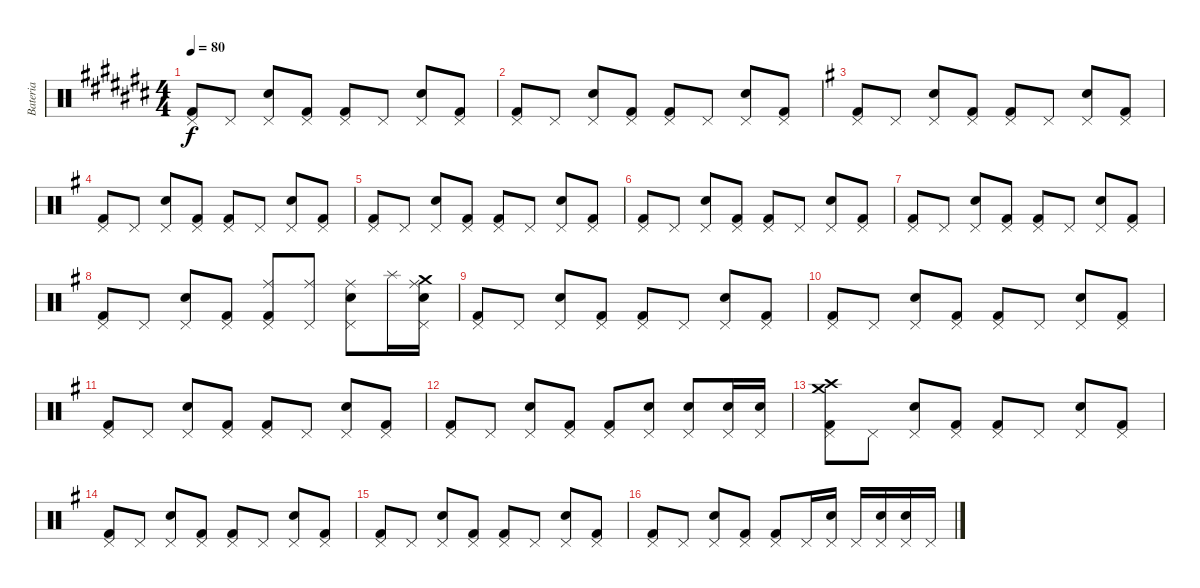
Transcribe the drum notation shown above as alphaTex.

\track ("Bateria" "Bateria") {instrument percussion}
\staff {score}
\articulation defaults
\ts (4 4)
\tempo 80
\clef neutral
\ks c#
("Pedal Hi-Hat (hit)" "Kick (hit) 2").8{dy f} "Pedal Hi-Hat (hit)".8 ("Pedal Hi-Hat (hit)" "Snare (hit) 2").8 ("Pedal Hi-Hat (hit)" "Kick (hit) 2").8 ("Pedal Hi-Hat (hit)" "Kick (hit) 2").8 "Pedal Hi-Hat (hit)".8 ("Pedal Hi-Hat (hit)" "Snare (hit) 2").8 ("Pedal Hi-Hat (hit)" "Kick (hit) 2").8 |
("Pedal Hi-Hat (hit)" "Kick (hit) 2").8 "Pedal Hi-Hat (hit)".8 ("Pedal Hi-Hat (hit)" "Snare (hit) 2").8 ("Pedal Hi-Hat (hit)" "Kick (hit) 2").8 ("Pedal Hi-Hat (hit)" "Kick (hit) 2").8 "Pedal Hi-Hat (hit)".8 ("Pedal Hi-Hat (hit)" "Snare (hit) 2").8 ("Pedal Hi-Hat (hit)" "Kick (hit) 2").8 |
\ks g
("Pedal Hi-Hat (hit)" "Kick (hit) 2").8 "Pedal Hi-Hat (hit)".8 ("Pedal Hi-Hat (hit)" "Snare (hit) 2").8 ("Pedal Hi-Hat (hit)" "Kick (hit) 2").8 ("Pedal Hi-Hat (hit)" "Kick (hit) 2").8 "Pedal Hi-Hat (hit)".8 ("Pedal Hi-Hat (hit)" "Snare (hit) 2").8 ("Pedal Hi-Hat (hit)" "Kick (hit) 2").8 |
("Pedal Hi-Hat (hit)" "Kick (hit) 2").8 "Pedal Hi-Hat (hit)".8 ("Pedal Hi-Hat (hit)" "Snare (hit) 2").8 ("Pedal Hi-Hat (hit)" "Kick (hit) 2").8 ("Pedal Hi-Hat (hit)" "Kick (hit) 2").8 "Pedal Hi-Hat (hit)".8 ("Pedal Hi-Hat (hit)" "Snare (hit) 2").8 ("Pedal Hi-Hat (hit)" "Kick (hit) 2").8 |
("Pedal Hi-Hat (hit)" "Kick (hit) 2").8 "Pedal Hi-Hat (hit)".8 ("Pedal Hi-Hat (hit)" "Snare (hit) 2").8 ("Pedal Hi-Hat (hit)" "Kick (hit) 2").8 ("Pedal Hi-Hat (hit)" "Kick (hit) 2").8 "Pedal Hi-Hat (hit)".8 ("Pedal Hi-Hat (hit)" "Snare (hit) 2").8 ("Pedal Hi-Hat (hit)" "Kick (hit) 2").8 |
("Pedal Hi-Hat (hit)" "Kick (hit) 2").8 "Pedal Hi-Hat (hit)".8 ("Pedal Hi-Hat (hit)" "Snare (hit) 2").8 ("Pedal Hi-Hat (hit)" "Kick (hit) 2").8 ("Pedal Hi-Hat (hit)" "Kick (hit) 2").8 "Pedal Hi-Hat (hit)".8 ("Pedal Hi-Hat (hit)" "Snare (hit) 2").8 ("Pedal Hi-Hat (hit)" "Kick (hit) 2").8 |
("Pedal Hi-Hat (hit)" "Kick (hit) 2").8 "Pedal Hi-Hat (hit)".8 ("Pedal Hi-Hat (hit)" "Snare (hit) 2").8 ("Pedal Hi-Hat (hit)" "Kick (hit) 2").8 ("Pedal Hi-Hat (hit)" "Kick (hit) 2").8 "Pedal Hi-Hat (hit)".8 ("Pedal Hi-Hat (hit)" "Snare (hit) 2").8 ("Pedal Hi-Hat (hit)" "Kick (hit) 2").8 |
("Pedal Hi-Hat (hit)" "Kick (hit) 2").8 "Pedal Hi-Hat (hit)".8 ("Pedal Hi-Hat (hit)" "Snare (hit) 2").8 ("Pedal Hi-Hat (hit)" "Kick (hit) 2").8 ("Pedal Hi-Hat (hit)" "Kick (hit) 2" "Ride (middle)").8 ("Pedal Hi-Hat (hit)" "Ride (middle)").8 ("Pedal Hi-Hat (hit)" "Snare (hit) 2" "Ride (middle)").8 "Splash (hit)".16 ("Pedal Hi-Hat (hit)" "Snare (hit) 2" "Ride (middle)" "Crash medium (hit)").16 |
("Pedal Hi-Hat (hit)" "Kick (hit) 2").8 "Pedal Hi-Hat (hit)".8 ("Pedal Hi-Hat (hit)" "Snare (hit) 2").8 ("Pedal Hi-Hat (hit)" "Kick (hit) 2").8 ("Pedal Hi-Hat (hit)" "Kick (hit) 2").8 "Pedal Hi-Hat (hit)".8 ("Pedal Hi-Hat (hit)" "Snare (hit) 2").8 ("Pedal Hi-Hat (hit)" "Kick (hit) 2").8 |
("Pedal Hi-Hat (hit)" "Kick (hit) 2").8 "Pedal Hi-Hat (hit)".8 ("Pedal Hi-Hat (hit)" "Snare (hit) 2").8 ("Pedal Hi-Hat (hit)" "Kick (hit) 2").8 ("Pedal Hi-Hat (hit)" "Kick (hit) 2").8 "Pedal Hi-Hat (hit)".8 ("Pedal Hi-Hat (hit)" "Snare (hit) 2").8 ("Pedal Hi-Hat (hit)" "Kick (hit) 2").8 |
("Pedal Hi-Hat (hit)" "Kick (hit) 2").8 "Pedal Hi-Hat (hit)".8 ("Pedal Hi-Hat (hit)" "Snare (hit) 2").8 ("Pedal Hi-Hat (hit)" "Kick (hit) 2").8 ("Pedal Hi-Hat (hit)" "Kick (hit) 2").8 "Pedal Hi-Hat (hit)".8 ("Pedal Hi-Hat (hit)" "Snare (hit) 2").8 ("Pedal Hi-Hat (hit)" "Kick (hit) 2").8 |
("Pedal Hi-Hat (hit)" "Kick (hit) 2").8 "Pedal Hi-Hat (hit)".8 ("Pedal Hi-Hat (hit)" "Snare (hit) 2").8 ("Pedal Hi-Hat (hit)" "Kick (hit) 2").8 ("Pedal Hi-Hat (hit)" "Kick (hit) 2").8 ("Pedal Hi-Hat (hit)" "Snare (hit) 2").8 ("Pedal Hi-Hat (hit)" "Snare (hit) 2").8 ("Pedal Hi-Hat (hit)" "Snare (hit) 2").16 ("Pedal Hi-Hat (hit)" "Snare (hit) 2").16 |
("Pedal Hi-Hat (hit)" "Kick (hit) 2" "Crash medium (hit)" "Crash high (hit)").8 "Pedal Hi-Hat (hit)".8 ("Pedal Hi-Hat (hit)" "Snare (hit) 2").8 ("Pedal Hi-Hat (hit)" "Kick (hit) 2").8 ("Pedal Hi-Hat (hit)" "Kick (hit) 2").8 "Pedal Hi-Hat (hit)".8 ("Pedal Hi-Hat (hit)" "Snare (hit) 2").8 ("Pedal Hi-Hat (hit)" "Kick (hit) 2").8 |
("Pedal Hi-Hat (hit)" "Kick (hit) 2").8 "Pedal Hi-Hat (hit)".8 ("Pedal Hi-Hat (hit)" "Snare (hit) 2").8 ("Pedal Hi-Hat (hit)" "Kick (hit) 2").8 ("Pedal Hi-Hat (hit)" "Kick (hit) 2").8 "Pedal Hi-Hat (hit)".8 ("Pedal Hi-Hat (hit)" "Snare (hit) 2").8 ("Pedal Hi-Hat (hit)" "Kick (hit) 2").8 |
("Pedal Hi-Hat (hit)" "Kick (hit) 2").8 "Pedal Hi-Hat (hit)".8 ("Pedal Hi-Hat (hit)" "Snare (hit) 2").8 ("Pedal Hi-Hat (hit)" "Kick (hit) 2").8 ("Pedal Hi-Hat (hit)" "Kick (hit) 2").8 "Pedal Hi-Hat (hit)".8 ("Pedal Hi-Hat (hit)" "Snare (hit) 2").8 ("Pedal Hi-Hat (hit)" "Kick (hit) 2").8 |
("Pedal Hi-Hat (hit)" "Kick (hit) 2").8 "Pedal Hi-Hat (hit)".8 ("Pedal Hi-Hat (hit)" "Snare (hit) 2").8 ("Pedal Hi-Hat (hit)" "Kick (hit) 2").8 ("Pedal Hi-Hat (hit)" "Kick (hit) 2").8 "Pedal Hi-Hat (hit)".16 ("Pedal Hi-Hat (hit)" "Snare (hit) 2").16 "Pedal Hi-Hat (hit)".16 ("Pedal Hi-Hat (hit)" "Snare (hit) 2").16 ("Pedal Hi-Hat (hit)" "Snare (hit) 2").16 "Pedal Hi-Hat (hit)".16
